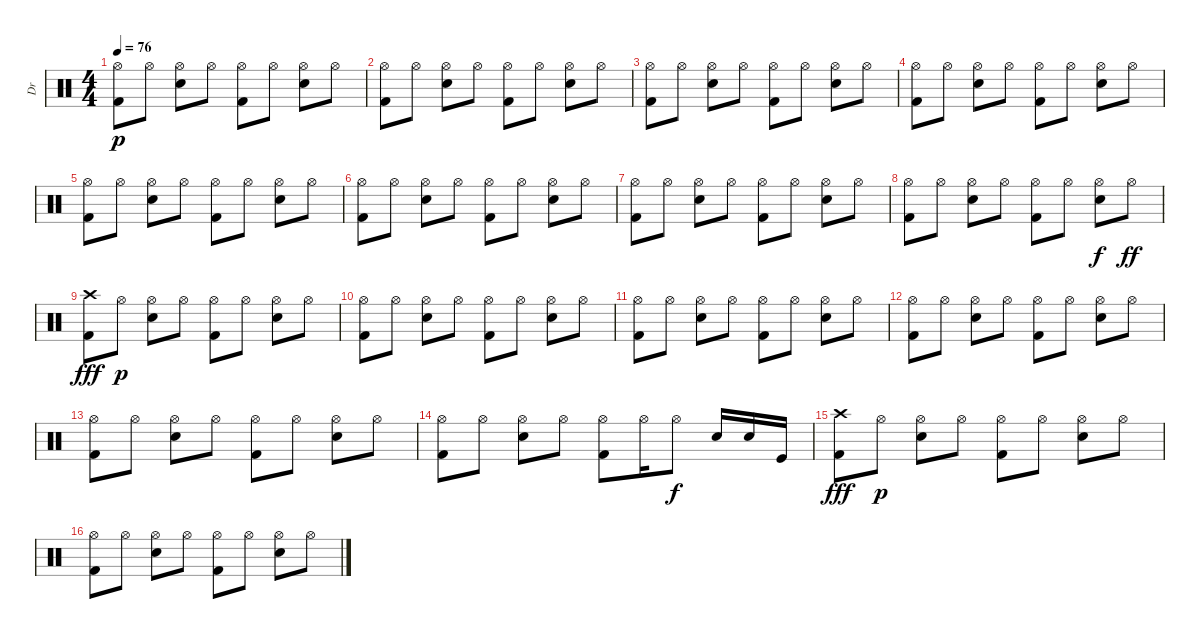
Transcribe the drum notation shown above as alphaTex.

\track ("Dr" "Dr") {instrument percussion}
\staff {score}
\articulation defaults
\ts (4 4)
\tempo 76
\clef neutral
\ks c
("Kick (hit) 2" "Hi-Hat (open)").8{dy p} "Hi-Hat (open)".8 ("Hi-Hat (open)" "Snare (hit) 2").8 "Hi-Hat (open)".8 ("Kick (hit) 2" "Hi-Hat (open)").8 "Hi-Hat (open)".8 ("Snare (hit) 2" "Hi-Hat (open)").8 "Hi-Hat (open)".8 |
("Kick (hit) 2" "Hi-Hat (open)").8 "Hi-Hat (open)".8 ("Hi-Hat (open)" "Snare (hit) 2").8 "Hi-Hat (open)".8 ("Kick (hit) 2" "Hi-Hat (open)").8 "Hi-Hat (open)".8 ("Snare (hit) 2" "Hi-Hat (open)").8 "Hi-Hat (open)".8 |
("Kick (hit) 2" "Hi-Hat (open)").8 "Hi-Hat (open)".8 ("Hi-Hat (open)" "Snare (hit) 2").8 "Hi-Hat (open)".8 ("Kick (hit) 2" "Hi-Hat (open)").8 "Hi-Hat (open)".8 ("Snare (hit) 2" "Hi-Hat (open)").8 "Hi-Hat (open)".8 |
("Kick (hit) 2" "Hi-Hat (open)").8 "Hi-Hat (open)".8 ("Hi-Hat (open)" "Snare (hit) 2").8 "Hi-Hat (open)".8 ("Kick (hit) 2" "Hi-Hat (open)").8 "Hi-Hat (open)".8 ("Snare (hit) 2" "Hi-Hat (open)").8 "Hi-Hat (open)".8 |
("Kick (hit) 2" "Hi-Hat (open)").8 "Hi-Hat (open)".8 ("Hi-Hat (open)" "Snare (hit) 2").8 "Hi-Hat (open)".8 ("Kick (hit) 2" "Hi-Hat (open)").8 "Hi-Hat (open)".8 ("Snare (hit) 2" "Hi-Hat (open)").8 "Hi-Hat (open)".8 |
("Kick (hit) 2" "Hi-Hat (open)").8 "Hi-Hat (open)".8 ("Hi-Hat (open)" "Snare (hit) 2").8 "Hi-Hat (open)".8 ("Kick (hit) 2" "Hi-Hat (open)").8 "Hi-Hat (open)".8 ("Snare (hit) 2" "Hi-Hat (open)").8 "Hi-Hat (open)".8 |
("Kick (hit) 2" "Hi-Hat (open)").8 "Hi-Hat (open)".8 ("Hi-Hat (open)" "Snare (hit) 2").8 "Hi-Hat (open)".8 ("Kick (hit) 2" "Hi-Hat (open)").8 "Hi-Hat (open)".8 ("Snare (hit) 2" "Hi-Hat (open)").8 "Hi-Hat (open)".8 |
("Kick (hit) 2" "Hi-Hat (open)").8 "Hi-Hat (open)".8 ("Hi-Hat (open)" "Snare (hit) 2").8 "Hi-Hat (open)".8 ("Kick (hit) 2" "Hi-Hat (open)").8 "Hi-Hat (open)".8 ("Snare (hit) 2" "Hi-Hat (open)").8{dy f} "Hi-Hat (open)".8{dy ff} |
("Kick (hit) 2" "Crash high (hit)").8{dy fff} "Hi-Hat (open)".8{dy p} ("Hi-Hat (open)" "Snare (hit) 2").8 "Hi-Hat (open)".8 ("Kick (hit) 2" "Hi-Hat (open)").8 "Hi-Hat (open)".8 ("Snare (hit) 2" "Hi-Hat (open)").8 "Hi-Hat (open)".8 |
("Kick (hit) 2" "Hi-Hat (open)").8 "Hi-Hat (open)".8 ("Hi-Hat (open)" "Snare (hit) 2").8 "Hi-Hat (open)".8 ("Kick (hit) 2" "Hi-Hat (open)").8 "Hi-Hat (open)".8 ("Snare (hit) 2" "Hi-Hat (open)").8 "Hi-Hat (open)".8 |
("Kick (hit) 2" "Hi-Hat (open)").8 "Hi-Hat (open)".8 ("Hi-Hat (open)" "Snare (hit) 2").8 "Hi-Hat (open)".8 ("Kick (hit) 2" "Hi-Hat (open)").8 "Hi-Hat (open)".8 ("Snare (hit) 2" "Hi-Hat (open)").8 "Hi-Hat (open)".8 |
("Kick (hit) 2" "Hi-Hat (open)").8 "Hi-Hat (open)".8 ("Hi-Hat (open)" "Snare (hit) 2").8 "Hi-Hat (open)".8 ("Kick (hit) 2" "Hi-Hat (open)").8 "Hi-Hat (open)".8 ("Snare (hit) 2" "Hi-Hat (open)").8 "Hi-Hat (open)".8 |
("Kick (hit) 2" "Hi-Hat (open)").8 "Hi-Hat (open)".8 ("Hi-Hat (open)" "Snare (hit) 2").8 "Hi-Hat (open)".8 ("Kick (hit) 2" "Hi-Hat (open)").8 "Hi-Hat (open)".8 ("Snare (hit) 2" "Hi-Hat (open)").8 "Hi-Hat (open)".8 |
("Kick (hit) 2" "Hi-Hat (open)").8 "Hi-Hat (open)".8 ("Hi-Hat (open)" "Snare (hit) 2").8 "Hi-Hat (open)".8 ("Kick (hit) 2" "Hi-Hat (open)").8 "Hi-Hat (open)".16 "Hi-Hat (open)".8{dy f} "Snare (hit) 2".16 "Snare (hit) 2".16 "Kick (hit)".16 |
("Kick (hit) 2" "Crash high (hit)").8{dy fff} "Hi-Hat (open)".8{dy p} ("Hi-Hat (open)" "Snare (hit) 2").8 "Hi-Hat (open)".8 ("Kick (hit) 2" "Hi-Hat (open)").8 "Hi-Hat (open)".8 ("Snare (hit) 2" "Hi-Hat (open)").8 "Hi-Hat (open)".8 |
("Kick (hit) 2" "Hi-Hat (open)").8 "Hi-Hat (open)".8 ("Hi-Hat (open)" "Snare (hit) 2").8 "Hi-Hat (open)".8 ("Kick (hit) 2" "Hi-Hat (open)").8 "Hi-Hat (open)".8 ("Snare (hit) 2" "Hi-Hat (open)").8 "Hi-Hat (open)".8
